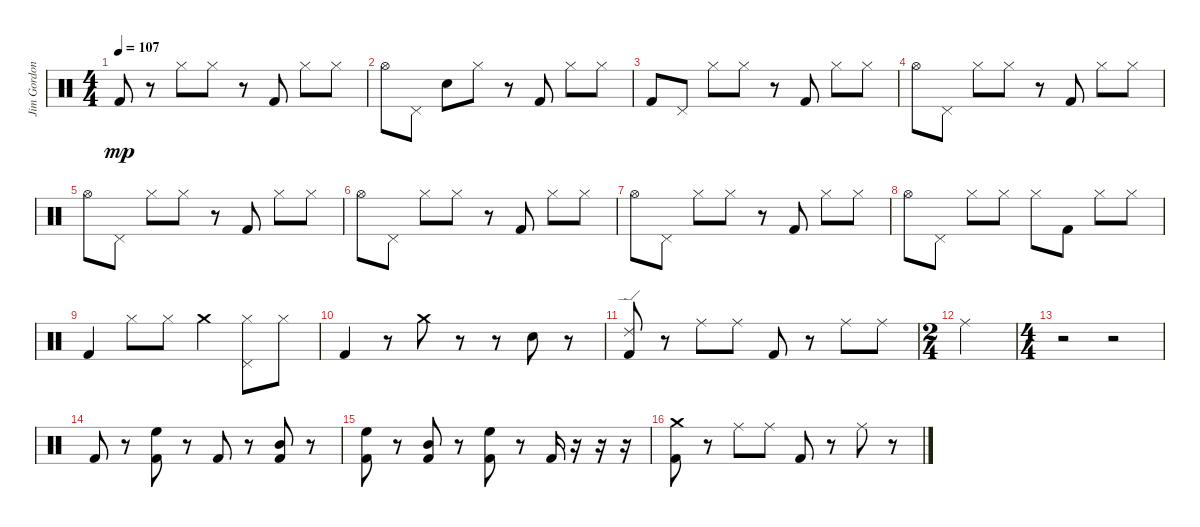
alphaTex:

\track ("Jim Gordon (Drums)" "Jim Gordon") {instrument percussion}
\staff {score}
\articulation defaults
\ts (4 4)
\tempo 107
\clef neutral
\ks c "Kick (hit) 2".8{dy mp}
r.8 "Hi-Hat (closed)".8 "Hi-Hat (closed)".8 r.8 "Kick (hit) 2".8 "Hi-Hat (closed)".8 "Hi-Hat (closed)".8 |
"Hi-Hat (open)".8 "Pedal Hi-Hat (hit)".8 "Snare (hit) 2".8 "Hi-Hat (closed)".8 r.8 "Kick (hit) 2".8 "Hi-Hat (closed)".8 "Hi-Hat (closed)".8 |
"Kick (hit) 2".8 "Pedal Hi-Hat (hit)".8 "Hi-Hat (closed)".8 "Hi-Hat (closed)".8 r.8 "Kick (hit) 2".8 "Hi-Hat (closed)".8 "Hi-Hat (closed)".8 |
"Hi-Hat (open)".8 "Pedal Hi-Hat (hit)".8 "Hi-Hat (closed)".8 "Hi-Hat (closed)".8 r.8 "Kick (hit) 2".8 "Hi-Hat (closed)".8 "Hi-Hat (closed)".8 |
"Hi-Hat (open)".8 "Pedal Hi-Hat (hit)".8 "Hi-Hat (closed)".8 "Hi-Hat (closed)".8 r.8 "Kick (hit) 2".8 "Hi-Hat (closed)".8 "Hi-Hat (closed)".8 |
"Hi-Hat (open)".8 "Pedal Hi-Hat (hit)".8 "Hi-Hat (closed)".8 "Hi-Hat (closed)".8 r.8 "Kick (hit) 2".8 "Hi-Hat (closed)".8 "Hi-Hat (closed)".8 |
"Hi-Hat (open)".8 "Pedal Hi-Hat (hit)".8 "Hi-Hat (closed)".8 "Hi-Hat (closed)".8 r.8 "Kick (hit) 2".8 "Hi-Hat (closed)".8 "Hi-Hat (closed)".8 |
"Hi-Hat (open)".8 "Pedal Hi-Hat (hit)".8 "Hi-Hat (closed)".8 "Hi-Hat (closed)".8 "Hi-Hat (closed)".8 "Kick (hit) 2".8 "Hi-Hat (closed)".8 "Hi-Hat (closed)".8 |
"Kick (hit) 2".4 "Hi-Hat (closed)".8 "Hi-Hat (closed)".8 "Crash medium (hit)".4 ("Hi-Hat (closed)" "Pedal Hi-Hat (hit)").8 "Hi-Hat (closed)".8 |
"Kick (hit) 2".4 r.8 "Crash medium (hit)".8 r.8 r.8 "Snare (hit) 2".8 r.8 |
("Ride (edge) 2" "Kick (hit) 2").8 r.8 "Ride (middle)".8 "Ride (middle)".8 "Kick (hit) 2".8 r.8 "Ride (middle)".8 "Ride (middle)".8 |
\ts (2 4)
"Ride (middle)".2 |
\ts (4 4)
r.2 r.2 |
"Kick (hit) 2".8 r.8 ("High Floor Tom (hit)" "Kick (hit) 2").8 r.8 "Kick (hit) 2".8 r.8 ("Mid Tom (hit)" "Kick (hit) 2").8 r.8 |
("High Floor Tom (hit)" "Kick (hit) 2").8 r.8 ("Mid Tom (hit)" "Kick (hit) 2").8 r.8 ("High Floor Tom (hit)" "Kick (hit) 2").8 r.8 "Kick (hit) 2".16 r.16 r.16 r.16 |
("Crash medium (hit)" "Kick (hit) 2").8 r.8 "Ride (middle)".8 "Ride (middle)".8 "Kick (hit) 2".8 r.8 "Ride (middle)".8 r.8
